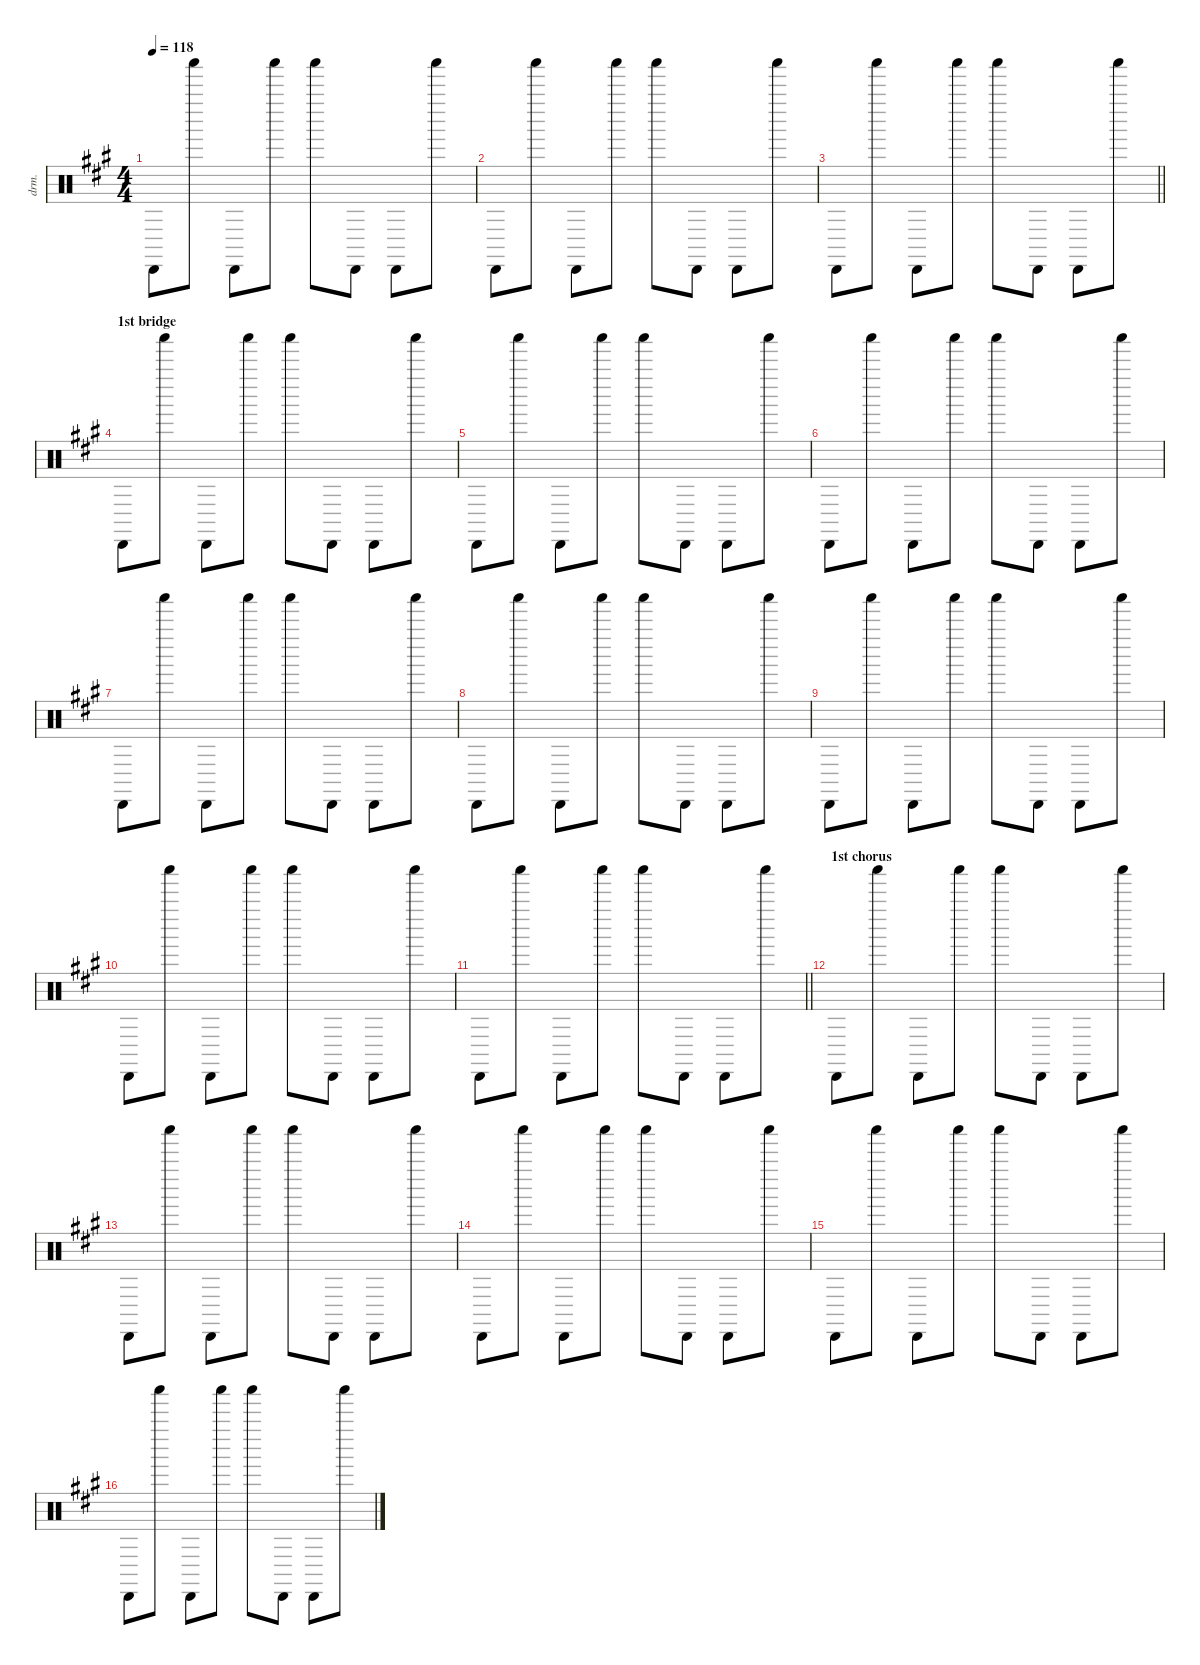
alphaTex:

\defaultSystemsLayout 4
\hideDynamics
\bracketExtendMode nobrackets
\otherSystemsTrackNameOrientation horizontal
\track ("shaker" "drm.") {instrument percussion}
\staff {score}
\articulation defaults
\ts (4 4)
\tempo 118
\clef neutral
\ks f#minor "Cabasa (hit)"{acc forcenatural}.8{dy f} "Shaker (hit)"{acc forcenatural}.8 "Cabasa (hit)"{acc forcenatural}.8{dy mp} "Shaker (hit)"{acc forcenatural}.8{dy f} "Shaker (hit)"{acc forcenatural}.8{dy p} "Cabasa (hit)"{acc forcenatural}.8{dy f} "Cabasa (hit)"{acc forcenatural}.8 "Shaker (hit)"{acc forcenatural}.8
|
"Cabasa (hit)"{acc forcenatural}.8 "Shaker (hit)"{acc forcenatural}.8 "Cabasa (hit)"{acc forcenatural}.8{dy mp} "Shaker (hit)"{acc forcenatural}.8{dy f} "Shaker (hit)"{acc forcenatural}.8{dy p} "Cabasa (hit)"{acc forcenatural}.8{dy f} "Cabasa (hit)"{acc forcenatural}.8 "Shaker (hit)"{acc forcenatural}.8 |
\barLineRight lightlight "Cabasa (hit)"{acc forcenatural}.8 "Shaker (hit)"{acc forcenatural}.8 "Cabasa (hit)"{acc forcenatural}.8{dy mp} "Shaker (hit)"{acc forcenatural}.8{dy f} "Shaker (hit)"{acc forcenatural}.8{dy p} "Cabasa (hit)"{acc forcenatural}.8{dy f} "Cabasa (hit)"{acc forcenatural}.8 "Shaker (hit)"{acc forcenatural}.8
|
\section ("" "1st bridge")
"Cabasa (hit)"{acc forcenatural}.8 "Shaker (hit)"{acc forcenatural}.8 "Cabasa (hit)"{acc forcenatural}.8{dy mp} "Shaker (hit)"{acc forcenatural}.8{dy f} "Shaker (hit)"{acc forcenatural}.8{dy p} "Cabasa (hit)"{acc forcenatural}.8{dy f} "Cabasa (hit)"{acc forcenatural}.8 "Shaker (hit)"{acc forcenatural}.8 |
"Cabasa (hit)"{acc forcenatural}.8 "Shaker (hit)"{acc forcenatural}.8 "Cabasa (hit)"{acc forcenatural}.8{dy mp} "Shaker (hit)"{acc forcenatural}.8{dy f} "Shaker (hit)"{acc forcenatural}.8{dy p} "Cabasa (hit)"{acc forcenatural}.8{dy f} "Cabasa (hit)"{acc forcenatural}.8 "Shaker (hit)"{acc forcenatural}.8 |
"Cabasa (hit)"{acc forcenatural}.8 "Shaker (hit)"{acc forcenatural}.8 "Cabasa (hit)"{acc forcenatural}.8{dy mp} "Shaker (hit)"{acc forcenatural}.8{dy f} "Shaker (hit)"{acc forcenatural}.8{dy p} "Cabasa (hit)"{acc forcenatural}.8{dy f} "Cabasa (hit)"{acc forcenatural}.8 "Shaker (hit)"{acc forcenatural}.8 |
"Cabasa (hit)"{acc forcenatural}.8 "Shaker (hit)"{acc forcenatural}.8 "Cabasa (hit)"{acc forcenatural}.8{dy mp} "Shaker (hit)"{acc forcenatural}.8{dy f} "Shaker (hit)"{acc forcenatural}.8{dy p} "Cabasa (hit)"{acc forcenatural}.8{dy f} "Cabasa (hit)"{acc forcenatural}.8 "Shaker (hit)"{acc forcenatural}.8 |
"Cabasa (hit)"{acc forcenatural}.8 "Shaker (hit)"{acc forcenatural}.8 "Cabasa (hit)"{acc forcenatural}.8{dy mp} "Shaker (hit)"{acc forcenatural}.8{dy f} "Shaker (hit)"{acc forcenatural}.8{dy p} "Cabasa (hit)"{acc forcenatural}.8{dy f} "Cabasa (hit)"{acc forcenatural}.8 "Shaker (hit)"{acc forcenatural}.8 |
"Cabasa (hit)"{acc forcenatural}.8 "Shaker (hit)"{acc forcenatural}.8 "Cabasa (hit)"{acc forcenatural}.8{dy mp} "Shaker (hit)"{acc forcenatural}.8{dy f} "Shaker (hit)"{acc forcenatural}.8{dy p} "Cabasa (hit)"{acc forcenatural}.8{dy f} "Cabasa (hit)"{acc forcenatural}.8 "Shaker (hit)"{acc forcenatural}.8 |
"Cabasa (hit)"{acc forcenatural}.8 "Shaker (hit)"{acc forcenatural}.8 "Cabasa (hit)"{acc forcenatural}.8{dy mp} "Shaker (hit)"{acc forcenatural}.8{dy f} "Shaker (hit)"{acc forcenatural}.8{dy p} "Cabasa (hit)"{acc forcenatural}.8{dy f} "Cabasa (hit)"{acc forcenatural}.8 "Shaker (hit)"{acc forcenatural}.8 |
\barLineRight lightlight "Cabasa (hit)"{acc forcenatural}.8 "Shaker (hit)"{acc forcenatural}.8 "Cabasa (hit)"{acc forcenatural}.8{dy mp} "Shaker (hit)"{acc forcenatural}.8{dy f} "Shaker (hit)"{acc forcenatural}.8{dy p} "Cabasa (hit)"{acc forcenatural}.8{dy f} "Cabasa (hit)"{acc forcenatural}.8 "Shaker (hit)"{acc forcenatural}.8
|
\section ("" "1st chorus")
"Cabasa (hit)"{acc forcenatural}.8 "Shaker (hit)"{acc forcenatural}.8 "Cabasa (hit)"{acc forcenatural}.8{dy mp} "Shaker (hit)"{acc forcenatural}.8{dy f} "Shaker (hit)"{acc forcenatural}.8{dy p} "Cabasa (hit)"{acc forcenatural}.8{dy f} "Cabasa (hit)"{acc forcenatural}.8 "Shaker (hit)"{acc forcenatural}.8 |
"Cabasa (hit)"{acc forcenatural}.8 "Shaker (hit)"{acc forcenatural}.8 "Cabasa (hit)"{acc forcenatural}.8{dy mp} "Shaker (hit)"{acc forcenatural}.8{dy f} "Shaker (hit)"{acc forcenatural}.8{dy p} "Cabasa (hit)"{acc forcenatural}.8{dy f} "Cabasa (hit)"{acc forcenatural}.8 "Shaker (hit)"{acc forcenatural}.8 |
"Cabasa (hit)"{acc forcenatural}.8 "Shaker (hit)"{acc forcenatural}.8 "Cabasa (hit)"{acc forcenatural}.8{dy mp} "Shaker (hit)"{acc forcenatural}.8{dy f} "Shaker (hit)"{acc forcenatural}.8{dy p} "Cabasa (hit)"{acc forcenatural}.8{dy f} "Cabasa (hit)"{acc forcenatural}.8 "Shaker (hit)"{acc forcenatural}.8 |
"Cabasa (hit)"{acc forcenatural}.8 "Shaker (hit)"{acc forcenatural}.8 "Cabasa (hit)"{acc forcenatural}.8{dy mp} "Shaker (hit)"{acc forcenatural}.8{dy f} "Shaker (hit)"{acc forcenatural}.8{dy p} "Cabasa (hit)"{acc forcenatural}.8{dy f} "Cabasa (hit)"{acc forcenatural}.8 "Shaker (hit)"{acc forcenatural}.8 |
"Cabasa (hit)"{acc forcenatural}.8 "Shaker (hit)"{acc forcenatural}.8 "Cabasa (hit)"{acc forcenatural}.8{dy mp} "Shaker (hit)"{acc forcenatural}.8{dy f} "Shaker (hit)"{acc forcenatural}.8{dy p} "Cabasa (hit)"{acc forcenatural}.8{dy f} "Cabasa (hit)"{acc forcenatural}.8 "Shaker (hit)"{acc forcenatural}.8
